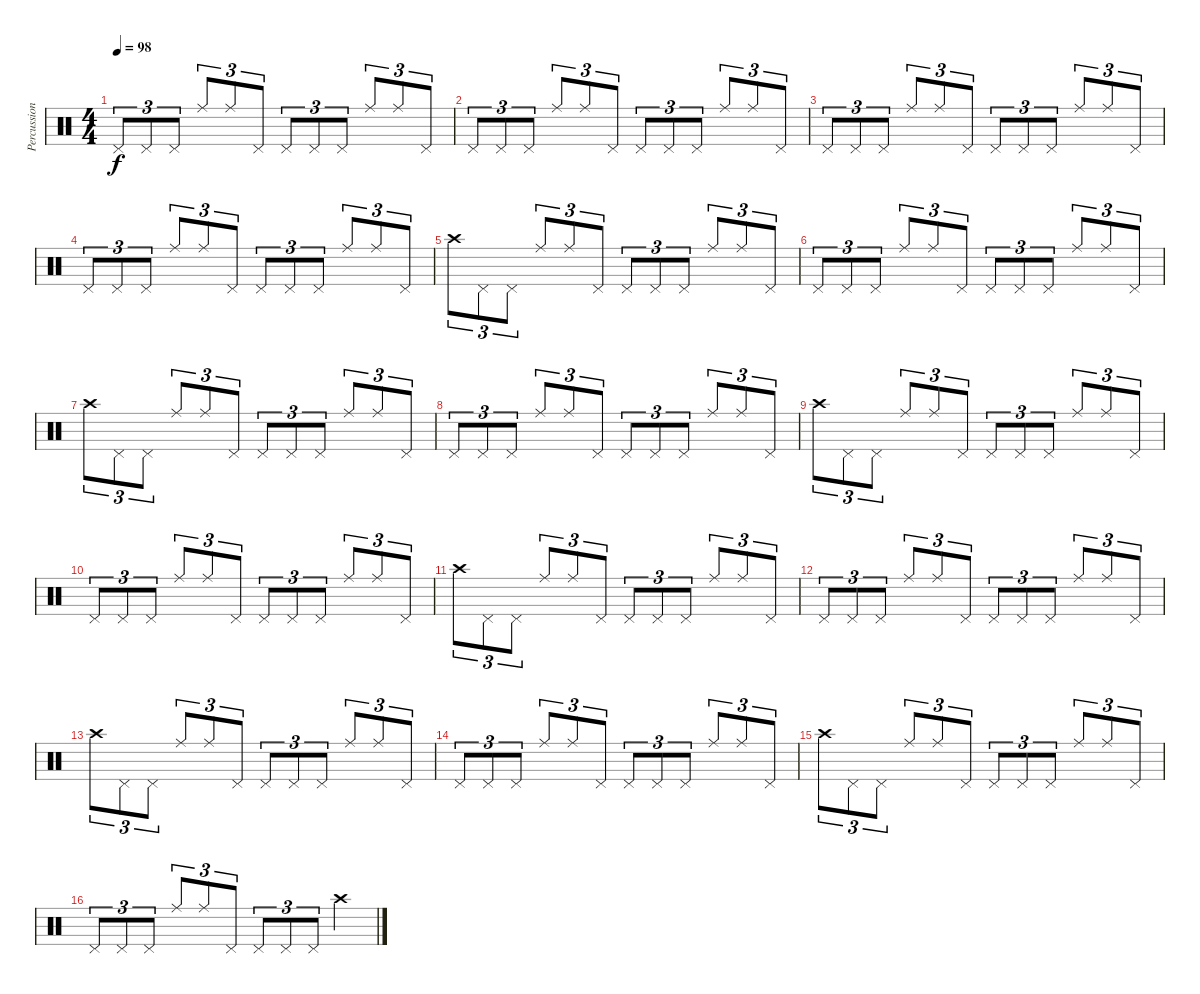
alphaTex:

\track ("Percussion2" "Percussion") {instrument percussion}
\staff {score}
\articulation defaults
\ts (4 4)
\tempo 98
\clef neutral
\ks c "Pedal Hi-Hat (hit)".8{tu (3 2) dy f} "Pedal Hi-Hat (hit)".8{tu (3 2)} "Pedal Hi-Hat (hit)".8{tu (3 2)} "Ride (middle)".8{tu (3 2)} "Ride (middle)".8{tu (3 2)} "Pedal Hi-Hat (hit)".8{tu (3 2)} "Pedal Hi-Hat (hit)".8{tu (3 2)} "Pedal Hi-Hat (hit)".8{tu (3 2)} "Pedal Hi-Hat (hit)".8{tu (3 2)} "Ride (middle)".8{tu (3 2)} "Ride (middle)".8{tu (3 2)} "Pedal Hi-Hat (hit)".8{tu (3 2)}
|
"Pedal Hi-Hat (hit)".8{tu (3 2)} "Pedal Hi-Hat (hit)".8{tu (3 2)} "Pedal Hi-Hat (hit)".8{tu (3 2)} "Ride (middle)".8{tu (3 2)} "Ride (middle)".8{tu (3 2)} "Pedal Hi-Hat (hit)".8{tu (3 2)} "Pedal Hi-Hat (hit)".8{tu (3 2)} "Pedal Hi-Hat (hit)".8{tu (3 2)} "Pedal Hi-Hat (hit)".8{tu (3 2)} "Ride (middle)".8{tu (3 2)} "Ride (middle)".8{tu (3 2)} "Pedal Hi-Hat (hit)".8{tu (3 2)} |
"Pedal Hi-Hat (hit)".8{tu (3 2)} "Pedal Hi-Hat (hit)".8{tu (3 2)} "Pedal Hi-Hat (hit)".8{tu (3 2)} "Ride (middle)".8{tu (3 2)} "Ride (middle)".8{tu (3 2)} "Pedal Hi-Hat (hit)".8{tu (3 2)} "Pedal Hi-Hat (hit)".8{tu (3 2)} "Pedal Hi-Hat (hit)".8{tu (3 2)} "Pedal Hi-Hat (hit)".8{tu (3 2)} "Ride (middle)".8{tu (3 2)} "Ride (middle)".8{tu (3 2)} "Pedal Hi-Hat (hit)".8{tu (3 2)} |
"Pedal Hi-Hat (hit)".8{tu (3 2)} "Pedal Hi-Hat (hit)".8{tu (3 2)} "Pedal Hi-Hat (hit)".8{tu (3 2)} "Ride (middle)".8{tu (3 2)} "Ride (middle)".8{tu (3 2)} "Pedal Hi-Hat (hit)".8{tu (3 2)} "Pedal Hi-Hat (hit)".8{tu (3 2)} "Pedal Hi-Hat (hit)".8{tu (3 2)} "Pedal Hi-Hat (hit)".8{tu (3 2)} "Ride (middle)".8{tu (3 2)} "Ride (middle)".8{tu (3 2)} "Pedal Hi-Hat (hit)".8{tu (3 2)} |
"Crash high (hit)".8{tu (3 2)} "Pedal Hi-Hat (hit)".8{tu (3 2)} "Pedal Hi-Hat (hit)".8{tu (3 2)} "Ride (middle)".8{tu (3 2)} "Ride (middle)".8{tu (3 2)} "Pedal Hi-Hat (hit)".8{tu (3 2)} "Pedal Hi-Hat (hit)".8{tu (3 2)} "Pedal Hi-Hat (hit)".8{tu (3 2)} "Pedal Hi-Hat (hit)".8{tu (3 2)} "Ride (middle)".8{tu (3 2)} "Ride (middle)".8{tu (3 2)} "Pedal Hi-Hat (hit)".8{tu (3 2)} |
"Pedal Hi-Hat (hit)".8{tu (3 2)} "Pedal Hi-Hat (hit)".8{tu (3 2)} "Pedal Hi-Hat (hit)".8{tu (3 2)} "Ride (middle)".8{tu (3 2)} "Ride (middle)".8{tu (3 2)} "Pedal Hi-Hat (hit)".8{tu (3 2)} "Pedal Hi-Hat (hit)".8{tu (3 2)} "Pedal Hi-Hat (hit)".8{tu (3 2)} "Pedal Hi-Hat (hit)".8{tu (3 2)} "Ride (middle)".8{tu (3 2)} "Ride (middle)".8{tu (3 2)} "Pedal Hi-Hat (hit)".8{tu (3 2)} |
"Crash high (hit)".8{tu (3 2)} "Pedal Hi-Hat (hit)".8{tu (3 2)} "Pedal Hi-Hat (hit)".8{tu (3 2)} "Ride (middle)".8{tu (3 2)} "Ride (middle)".8{tu (3 2)} "Pedal Hi-Hat (hit)".8{tu (3 2)} "Pedal Hi-Hat (hit)".8{tu (3 2)} "Pedal Hi-Hat (hit)".8{tu (3 2)} "Pedal Hi-Hat (hit)".8{tu (3 2)} "Ride (middle)".8{tu (3 2)} "Ride (middle)".8{tu (3 2)} "Pedal Hi-Hat (hit)".8{tu (3 2)} |
"Pedal Hi-Hat (hit)".8{tu (3 2)} "Pedal Hi-Hat (hit)".8{tu (3 2)} "Pedal Hi-Hat (hit)".8{tu (3 2)} "Ride (middle)".8{tu (3 2)} "Ride (middle)".8{tu (3 2)} "Pedal Hi-Hat (hit)".8{tu (3 2)} "Pedal Hi-Hat (hit)".8{tu (3 2)} "Pedal Hi-Hat (hit)".8{tu (3 2)} "Pedal Hi-Hat (hit)".8{tu (3 2)} "Ride (middle)".8{tu (3 2)} "Ride (middle)".8{tu (3 2)} "Pedal Hi-Hat (hit)".8{tu (3 2)} |
"Crash high (hit)".8{tu (3 2)} "Pedal Hi-Hat (hit)".8{tu (3 2)} "Pedal Hi-Hat (hit)".8{tu (3 2)} "Ride (middle)".8{tu (3 2)} "Ride (middle)".8{tu (3 2)} "Pedal Hi-Hat (hit)".8{tu (3 2)} "Pedal Hi-Hat (hit)".8{tu (3 2)} "Pedal Hi-Hat (hit)".8{tu (3 2)} "Pedal Hi-Hat (hit)".8{tu (3 2)} "Ride (middle)".8{tu (3 2)} "Ride (middle)".8{tu (3 2)} "Pedal Hi-Hat (hit)".8{tu (3 2)} |
"Pedal Hi-Hat (hit)".8{tu (3 2)} "Pedal Hi-Hat (hit)".8{tu (3 2)} "Pedal Hi-Hat (hit)".8{tu (3 2)} "Ride (middle)".8{tu (3 2)} "Ride (middle)".8{tu (3 2)} "Pedal Hi-Hat (hit)".8{tu (3 2)} "Pedal Hi-Hat (hit)".8{tu (3 2)} "Pedal Hi-Hat (hit)".8{tu (3 2)} "Pedal Hi-Hat (hit)".8{tu (3 2)} "Ride (middle)".8{tu (3 2)} "Ride (middle)".8{tu (3 2)} "Pedal Hi-Hat (hit)".8{tu (3 2)} |
"Crash high (hit)".8{tu (3 2)} "Pedal Hi-Hat (hit)".8{tu (3 2)} "Pedal Hi-Hat (hit)".8{tu (3 2)} "Ride (middle)".8{tu (3 2)} "Ride (middle)".8{tu (3 2)} "Pedal Hi-Hat (hit)".8{tu (3 2)} "Pedal Hi-Hat (hit)".8{tu (3 2)} "Pedal Hi-Hat (hit)".8{tu (3 2)} "Pedal Hi-Hat (hit)".8{tu (3 2)} "Ride (middle)".8{tu (3 2)} "Ride (middle)".8{tu (3 2)} "Pedal Hi-Hat (hit)".8{tu (3 2)} |
"Pedal Hi-Hat (hit)".8{tu (3 2)} "Pedal Hi-Hat (hit)".8{tu (3 2)} "Pedal Hi-Hat (hit)".8{tu (3 2)} "Ride (middle)".8{tu (3 2)} "Ride (middle)".8{tu (3 2)} "Pedal Hi-Hat (hit)".8{tu (3 2)} "Pedal Hi-Hat (hit)".8{tu (3 2)} "Pedal Hi-Hat (hit)".8{tu (3 2)} "Pedal Hi-Hat (hit)".8{tu (3 2)} "Ride (middle)".8{tu (3 2)} "Ride (middle)".8{tu (3 2)} "Pedal Hi-Hat (hit)".8{tu (3 2)} |
"Crash high (hit)".8{tu (3 2)} "Pedal Hi-Hat (hit)".8{tu (3 2)} "Pedal Hi-Hat (hit)".8{tu (3 2)} "Ride (middle)".8{tu (3 2)} "Ride (middle)".8{tu (3 2)} "Pedal Hi-Hat (hit)".8{tu (3 2)} "Pedal Hi-Hat (hit)".8{tu (3 2)} "Pedal Hi-Hat (hit)".8{tu (3 2)} "Pedal Hi-Hat (hit)".8{tu (3 2)} "Ride (middle)".8{tu (3 2)} "Ride (middle)".8{tu (3 2)} "Pedal Hi-Hat (hit)".8{tu (3 2)} |
"Pedal Hi-Hat (hit)".8{tu (3 2)} "Pedal Hi-Hat (hit)".8{tu (3 2)} "Pedal Hi-Hat (hit)".8{tu (3 2)} "Ride (middle)".8{tu (3 2)} "Ride (middle)".8{tu (3 2)} "Pedal Hi-Hat (hit)".8{tu (3 2)} "Pedal Hi-Hat (hit)".8{tu (3 2)} "Pedal Hi-Hat (hit)".8{tu (3 2)} "Pedal Hi-Hat (hit)".8{tu (3 2)} "Ride (middle)".8{tu (3 2)} "Ride (middle)".8{tu (3 2)} "Pedal Hi-Hat (hit)".8{tu (3 2)} |
"Crash high (hit)".8{tu (3 2)} "Pedal Hi-Hat (hit)".8{tu (3 2)} "Pedal Hi-Hat (hit)".8{tu (3 2)} "Ride (middle)".8{tu (3 2)} "Ride (middle)".8{tu (3 2)} "Pedal Hi-Hat (hit)".8{tu (3 2)} "Pedal Hi-Hat (hit)".8{tu (3 2)} "Pedal Hi-Hat (hit)".8{tu (3 2)} "Pedal Hi-Hat (hit)".8{tu (3 2)} "Ride (middle)".8{tu (3 2)} "Ride (middle)".8{tu (3 2)} "Pedal Hi-Hat (hit)".8{tu (3 2)} |
"Pedal Hi-Hat (hit)".8{tu (3 2)} "Pedal Hi-Hat (hit)".8{tu (3 2)} "Pedal Hi-Hat (hit)".8{tu (3 2)} "Ride (middle)".8{tu (3 2)} "Ride (middle)".8{tu (3 2)} "Pedal Hi-Hat (hit)".8{tu (3 2)} "Pedal Hi-Hat (hit)".8{tu (3 2)} "Pedal Hi-Hat (hit)".8{tu (3 2)} "Pedal Hi-Hat (hit)".8{tu (3 2)} "Crash high (hit)".4
